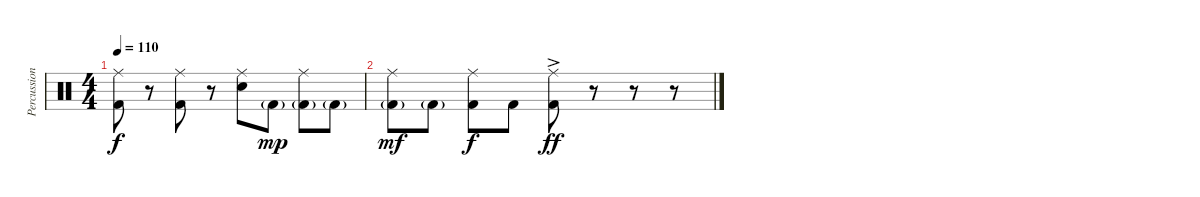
\track ("Percussion" "Percussion") {instrument percussion}
\staff {score}
\articulation defaults
\ts (4 4)
\tempo 110
\clef neutral
\ks c
("Ride (middle)" "Kick (hit) 2").8{dy f} r.8 ("Ride (middle)" "Kick (hit) 2").8 r.8 ("Ride (middle)" "Electric Snare (hit)").8 "Kick (hit) 2"{g}.8{dy mp} ("Ride (middle)" "Kick (hit) 2"{g}).8 "Kick (hit) 2"{g}.8 |
("Ride (middle)" "Kick (hit) 2"{g}).8{dy mf} "Kick (hit) 2"{g}.8 ("Ride (middle)" "Kick (hit) 2").8{dy f} "Kick (hit) 2".8 ("Ride (middle)"{ac} "Kick (hit) 2"{ac}).8{dy ff} r.8 r.8 r.8
